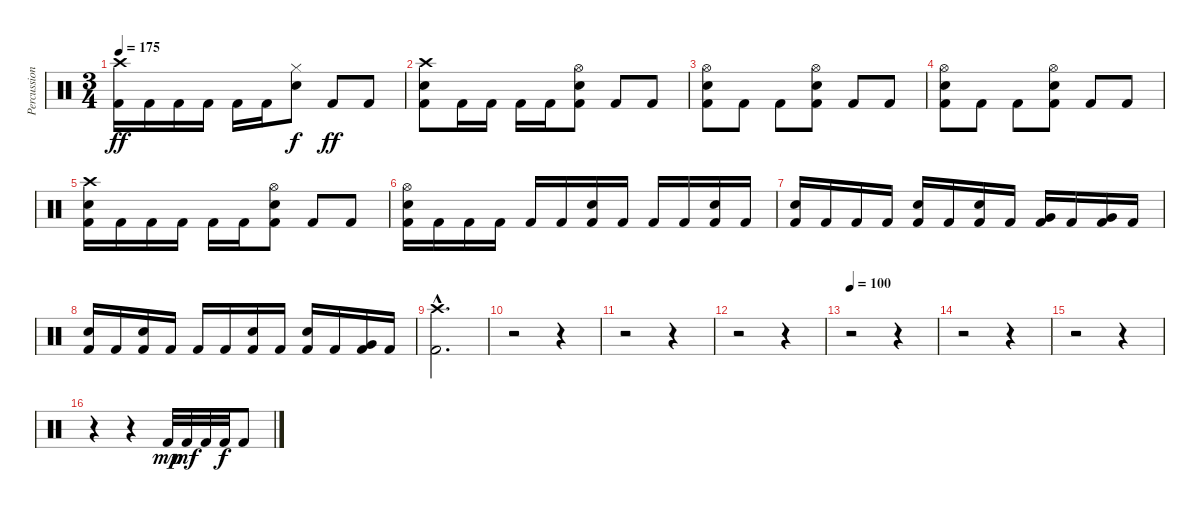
\track ("Percussion" "Percussion") {instrument percussion}
\staff {score}
\articulation defaults
\ts (3 4)
\tempo 175
\clef neutral
\ks c
("Crash high (hit)" "Kick (hit) 2").16{dy ff} "Kick (hit) 2".16 "Kick (hit) 2".16 "Kick (hit) 2".16 "Kick (hit) 2".16 "Kick (hit) 2".16 ("Hi-Hat (closed)" "Snare (hit) 2").8{dy f} "Kick (hit) 2".8{dy ff} "Kick (hit) 2".8 |
("Crash high (hit)" "Snare (hit) 2" "Kick (hit) 2").8 "Kick (hit) 2".16 "Kick (hit) 2".16 "Kick (hit) 2".16 "Kick (hit) 2".16 ("Hi-Hat (open)" "Snare (hit) 2" "Kick (hit) 2").8 "Kick (hit) 2".8 "Kick (hit) 2".8 |
("Hi-Hat (open)" "Snare (hit) 2" "Kick (hit) 2").8 "Kick (hit) 2".8 "Kick (hit) 2".8 ("Hi-Hat (open)" "Snare (hit) 2" "Kick (hit) 2").8 "Kick (hit) 2".8 "Kick (hit) 2".8 |
("Hi-Hat (open)" "Snare (hit) 2" "Kick (hit) 2").8 "Kick (hit) 2".8 "Kick (hit) 2".8 ("Hi-Hat (open)" "Snare (hit) 2" "Kick (hit) 2").8 "Kick (hit) 2".8 "Kick (hit) 2".8 |
("Crash high (hit)" "Snare (hit) 2" "Kick (hit) 2").16 "Kick (hit) 2".16 "Kick (hit) 2".16 "Kick (hit) 2".16 "Kick (hit) 2".16 "Kick (hit) 2".16 ("Hi-Hat (open)" "Snare (hit) 2" "Kick (hit) 2").8 "Kick (hit) 2".8 "Kick (hit) 2".8 |
("Hi-Hat (open)" "Snare (hit) 2" "Kick (hit) 2").16 "Kick (hit) 2".16 "Kick (hit) 2".16 "Kick (hit) 2".16 "Kick (hit) 2".16 "Kick (hit) 2".16 ("Snare (hit) 2" "Kick (hit) 2").16 "Kick (hit) 2".16 "Kick (hit) 2".16 "Kick (hit) 2".16 ("Snare (hit) 2" "Kick (hit) 2").16 "Kick (hit) 2".16 |
("Snare (hit) 2" "Kick (hit) 2").16 "Kick (hit) 2".16 "Kick (hit) 2".16 "Kick (hit) 2".16 ("Snare (hit) 2" "Kick (hit) 2").16 "Kick (hit) 2".16 ("Snare (hit) 2" "Kick (hit) 2").16 "Kick (hit) 2".16 ("Very Low Tom (hit)" "Kick (hit) 2").16 "Kick (hit) 2".16 ("Very Low Tom (hit)" "Kick (hit) 2").16 "Kick (hit) 2".16 |
("Snare (hit) 2" "Kick (hit) 2").16 "Kick (hit) 2".16 ("Snare (hit) 2" "Kick (hit) 2").16 "Kick (hit) 2".16 "Kick (hit) 2".16 "Kick (hit) 2".16 ("Snare (hit) 2" "Kick (hit) 2").16 "Kick (hit) 2".16 ("Snare (hit) 2" "Kick (hit) 2").16 "Kick (hit) 2".16 ("Very Low Tom (hit)" "Kick (hit) 2").16 "Kick (hit) 2".16 |
("Crash high (hit)"{hac} "Kick (hit) 2"{hac}).2{d} |
r.2 r.4 |
r.2 r.4 |
r.2 r.4 |
\tempo 100
r.2{volume 10} r.4 |
r.2 r.4 |
r.2 r.4 |
r.4 r.4 "Kick (hit) 2".32{dy mp} "Kick (hit) 2".32{dy mf} "Kick (hit) 2".32 "Kick (hit) 2".32{dy f} "Kick (hit) 2".8
